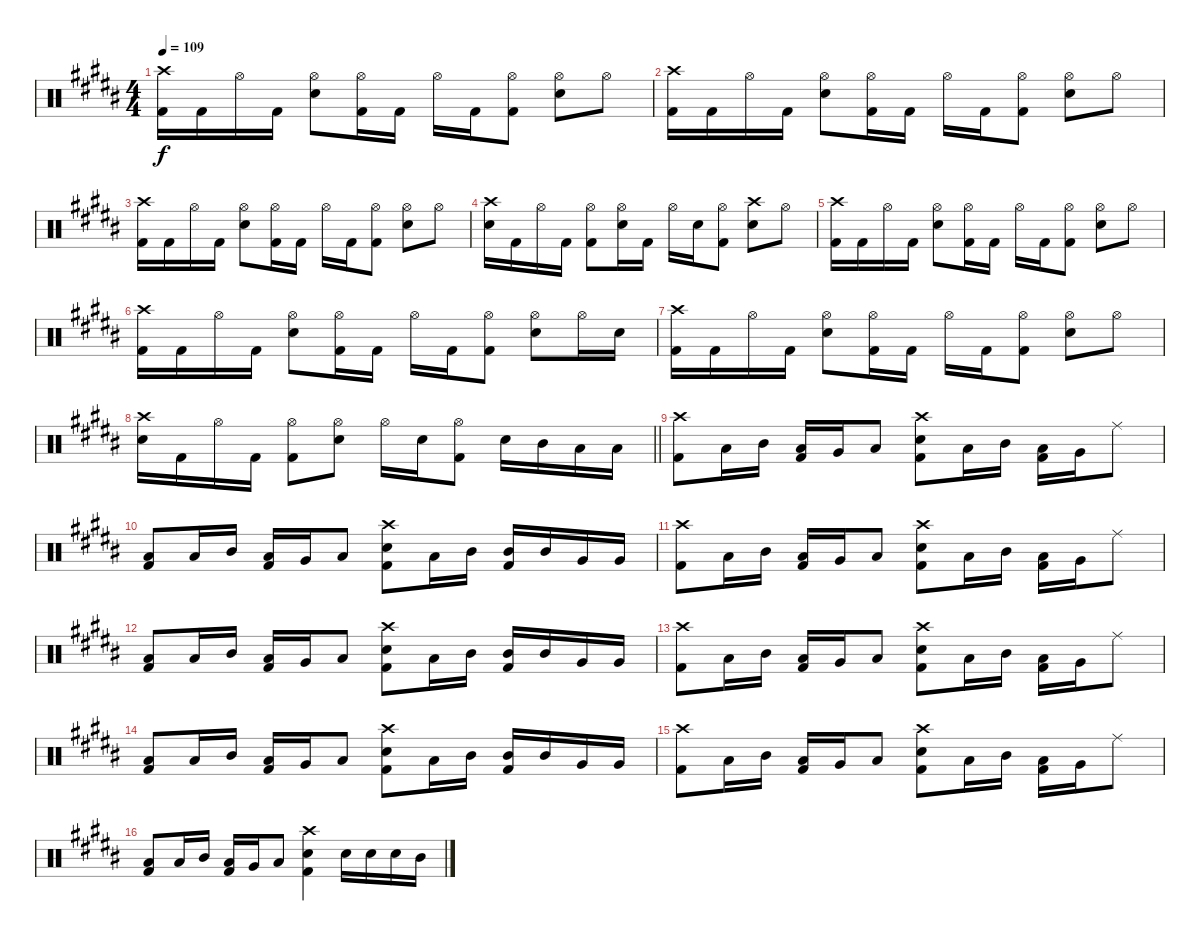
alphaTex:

\track "" {instrument percussion}
\staff {score}
\articulation defaults
\ts (4 4)
\tempo 109
\clef neutral
\ks g#minor
("Crash high (hit)" "Kick (hit) 2").16{dy f} "Kick (hit) 2".16 "Hi-Hat (open)".16 "Kick (hit) 2".16 ("Hi-Hat (open)" "Snare (hit) 2").8 ("Hi-Hat (open)" "Kick (hit) 2").16 "Kick (hit) 2".16 "Hi-Hat (open)".16 "Kick (hit) 2".16 ("Hi-Hat (open)" "Kick (hit) 2").8 ("Hi-Hat (open)" "Snare (hit) 2").8 "Hi-Hat (open)".8 |
("Crash high (hit)" "Kick (hit) 2").16 "Kick (hit) 2".16 "Hi-Hat (open)".16 "Kick (hit) 2".16 ("Hi-Hat (open)" "Snare (hit) 2").8 ("Hi-Hat (open)" "Kick (hit) 2").16 "Kick (hit) 2".16 "Hi-Hat (open)".16 "Kick (hit) 2".16 ("Hi-Hat (open)" "Kick (hit) 2").8 ("Hi-Hat (open)" "Snare (hit) 2").8 "Hi-Hat (open)".8 |
("Crash high (hit)" "Kick (hit) 2").16 "Kick (hit) 2".16 "Hi-Hat (open)".16 "Kick (hit) 2".16 ("Hi-Hat (open)" "Snare (hit) 2").8 ("Hi-Hat (open)" "Kick (hit) 2").16 "Kick (hit) 2".16 "Hi-Hat (open)".16 "Kick (hit) 2".16 ("Hi-Hat (open)" "Kick (hit) 2").8 ("Hi-Hat (open)" "Snare (hit) 2").8 "Hi-Hat (open)".8 |
("Crash high (hit)" "Snare (hit) 2").16 "Kick (hit) 2".16 "Hi-Hat (open)".16 "Kick (hit) 2".16 ("Hi-Hat (open)" "Kick (hit) 2").8 ("Hi-Hat (open)" "Snare (hit) 2").16 "Kick (hit) 2".16 "Hi-Hat (open)".16 "Snare (hit) 2".16 ("Hi-Hat (open)" "Kick (hit) 2").8 ("Crash high (hit)" "Snare (hit) 2").8 "Hi-Hat (open)".8 |
("Crash high (hit)" "Kick (hit) 2").16 "Kick (hit) 2".16 "Hi-Hat (open)".16 "Kick (hit) 2".16 ("Hi-Hat (open)" "Snare (hit) 2").8 ("Hi-Hat (open)" "Kick (hit) 2").16 "Kick (hit) 2".16 "Hi-Hat (open)".16 "Kick (hit) 2".16 ("Hi-Hat (open)" "Kick (hit) 2").8 ("Hi-Hat (open)" "Snare (hit) 2").8 "Hi-Hat (open)".8 |
("Crash high (hit)" "Kick (hit) 2").16 "Kick (hit) 2".16 "Hi-Hat (open)".16 "Kick (hit) 2".16 ("Hi-Hat (open)" "Snare (hit) 2").8 ("Hi-Hat (open)" "Kick (hit) 2").16 "Kick (hit) 2".16 "Hi-Hat (open)".16 "Kick (hit) 2".16 ("Hi-Hat (open)" "Kick (hit) 2").8 ("Hi-Hat (open)" "Snare (hit) 2").8 "Hi-Hat (open)".16 "Snare (hit) 2".16 |
("Crash high (hit)" "Kick (hit) 2").16 "Kick (hit) 2".16 "Hi-Hat (open)".16 "Kick (hit) 2".16 ("Hi-Hat (open)" "Snare (hit) 2").8 ("Hi-Hat (open)" "Kick (hit) 2").16 "Kick (hit) 2".16 "Hi-Hat (open)".16 "Kick (hit) 2".16 ("Hi-Hat (open)" "Kick (hit) 2").8 ("Hi-Hat (open)" "Snare (hit) 2").8 "Hi-Hat (open)".8 |
\barLineRight lightlight
("Crash high (hit)" "Snare (hit) 2").16 "Kick (hit) 2".16 "Hi-Hat (open)".16 "Kick (hit) 2".16 ("Hi-Hat (open)" "Kick (hit) 2").8 ("Hi-Hat (open)" "Snare (hit) 2").8 "Hi-Hat (open)".16 "Snare (hit) 2".16 ("Hi-Hat (open)" "Kick (hit) 2").8 "Snare (hit) 2".16 "Mid Tom (hit)".16 "Low Tom (hit)".16 "Low Tom (hit)".16 |
("Crash high (hit)" "Kick (hit) 2").8 "Low Floor Tom (hit)".16 "Mid Tom (hit)".16 ("Low Floor Tom (hit)" "Kick (hit) 2").16 "Very Low Tom (hit)".16 "Low Floor Tom (hit)".8 ("Crash high (hit)" "Snare (hit) 2" "Kick (hit) 2").8 "Low Floor Tom (hit)".16 "Mid Tom (hit)".16 ("Low Floor Tom (hit)" "Kick (hit) 2").16 "Very Low Tom (hit)".16 "Ride (middle)".8 |
("Low Floor Tom (hit)" "Kick (hit) 2").8 "Low Floor Tom (hit)".16 "Mid Tom (hit)".16 ("Low Floor Tom (hit)" "Kick (hit) 2").16 "Very Low Tom (hit)".16 "Low Floor Tom (hit)".8 ("Crash high (hit)" "Snare (hit) 2" "Kick (hit) 2").8 "Low Floor Tom (hit)".16 "Mid Tom (hit)".16 ("Mid Tom (hit)" "Kick (hit) 2").16 "Mid Tom (hit)".16 "Very Low Tom (hit)".16 "Very Low Tom (hit)".16 |
("Crash high (hit)" "Kick (hit) 2").8 "Low Floor Tom (hit)".16 "Mid Tom (hit)".16 ("Low Floor Tom (hit)" "Kick (hit) 2").16 "Very Low Tom (hit)".16 "Low Floor Tom (hit)".8 ("Crash high (hit)" "Snare (hit) 2" "Kick (hit) 2").8 "Low Floor Tom (hit)".16 "Mid Tom (hit)".16 ("Low Floor Tom (hit)" "Kick (hit) 2").16 "Very Low Tom (hit)".16 "Ride (middle)".8 |
("Low Floor Tom (hit)" "Kick (hit) 2").8 "Low Floor Tom (hit)".16 "Mid Tom (hit)".16 ("Low Floor Tom (hit)" "Kick (hit) 2").16 "Very Low Tom (hit)".16 "Low Floor Tom (hit)".8 ("Crash high (hit)" "Snare (hit) 2" "Kick (hit) 2").8 "Low Floor Tom (hit)".16 "Mid Tom (hit)".16 ("Mid Tom (hit)" "Kick (hit) 2").16 "Mid Tom (hit)".16 "Very Low Tom (hit)".16 "Very Low Tom (hit)".16 |
("Crash high (hit)" "Kick (hit) 2").8 "Low Floor Tom (hit)".16 "Mid Tom (hit)".16 ("Low Floor Tom (hit)" "Kick (hit) 2").16 "Very Low Tom (hit)".16 "Low Floor Tom (hit)".8 ("Crash high (hit)" "Snare (hit) 2" "Kick (hit) 2").8 "Low Floor Tom (hit)".16 "Mid Tom (hit)".16 ("Low Floor Tom (hit)" "Kick (hit) 2").16 "Very Low Tom (hit)".16 "Ride (middle)".8 |
("Low Floor Tom (hit)" "Kick (hit) 2").8 "Low Floor Tom (hit)".16 "Mid Tom (hit)".16 ("Low Floor Tom (hit)" "Kick (hit) 2").16 "Very Low Tom (hit)".16 "Low Floor Tom (hit)".8 ("Crash high (hit)" "Snare (hit) 2" "Kick (hit) 2").8 "Low Floor Tom (hit)".16 "Mid Tom (hit)".16 ("Mid Tom (hit)" "Kick (hit) 2").16 "Mid Tom (hit)".16 "Very Low Tom (hit)".16 "Very Low Tom (hit)".16 |
("Crash high (hit)" "Kick (hit) 2").8 "Low Floor Tom (hit)".16 "Mid Tom (hit)".16 ("Low Floor Tom (hit)" "Kick (hit) 2").16 "Very Low Tom (hit)".16 "Low Floor Tom (hit)".8 ("Crash high (hit)" "Snare (hit) 2" "Kick (hit) 2").8 "Low Floor Tom (hit)".16 "Mid Tom (hit)".16 ("Low Floor Tom (hit)" "Kick (hit) 2").16 "Very Low Tom (hit)".16 "Ride (middle)".8 |
("Low Floor Tom (hit)" "Kick (hit) 2").8 "Low Floor Tom (hit)".16 "Mid Tom (hit)".16 ("Low Floor Tom (hit)" "Kick (hit) 2").16 "Very Low Tom (hit)".16 "Low Floor Tom (hit)".8 ("Crash high (hit)" "Snare (hit) 2" "Kick (hit) 2").4 "Snare (hit) 2".16 "Snare (hit) 2".16 "Snare (hit) 2".16 "Mid Tom (hit)".16
